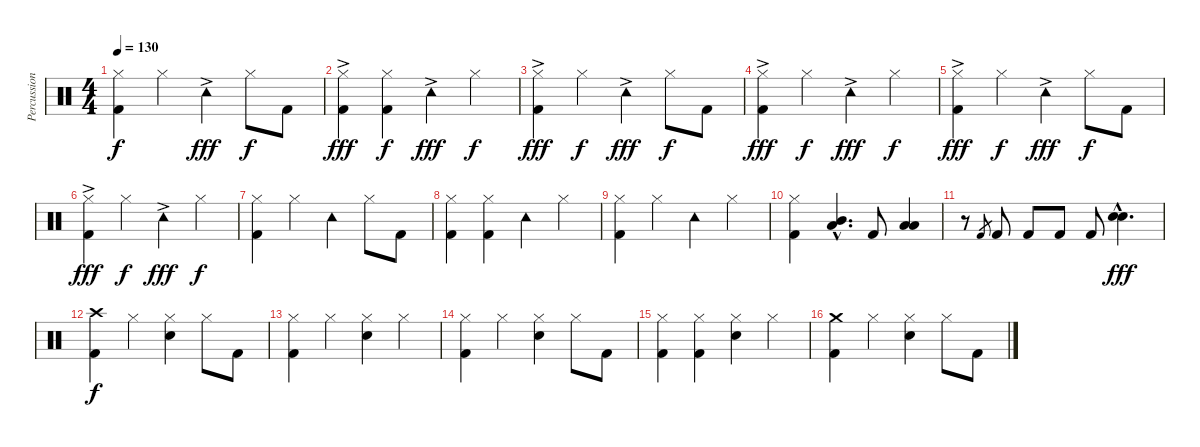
\track ("Percussion" "Percussion") {instrument percussion}
\staff {score}
\articulation defaults
\ts (4 4)
\tempo 130
\clef neutral
\ks c
("Kick (hit) 2" "Hi-Hat (closed)").4{dy f} "Hi-Hat (closed)".4 "Tambourine (hit)"{ac}.4{dy fff} "Hi-Hat (closed)".8{dy f} "Kick (hit) 2".8 |
("Hi-Hat (closed)"{ac} "Kick (hit) 2").4{dy fff} ("Hi-Hat (closed)" "Kick (hit) 2").4{dy f} "Tambourine (hit)"{ac}.4{dy fff} "Hi-Hat (closed)".4{dy f} |
("Hi-Hat (closed)"{ac} "Kick (hit) 2").4{dy fff} "Hi-Hat (closed)".4{dy f} "Tambourine (hit)"{ac}.4{dy fff} "Hi-Hat (closed)".8{dy f} "Kick (hit) 2".8 |
("Hi-Hat (closed)" "Kick (hit) 2"{ac}).4{dy fff} "Hi-Hat (closed)".4{dy f} "Tambourine (hit)"{ac}.4{dy fff} "Hi-Hat (closed)".4{dy f} |
("Kick (hit) 2" "Hi-Hat (closed)"{ac}).4{dy fff} "Hi-Hat (closed)".4{dy f} "Tambourine (hit)"{ac}.4{dy fff} "Hi-Hat (closed)".8{dy f} "Kick (hit) 2".8 |
("Hi-Hat (closed)"{ac} "Kick (hit) 2").4{dy fff} "Hi-Hat (closed)".4{dy f} "Tambourine (hit)"{ac}.4{dy fff} "Hi-Hat (closed)".4{dy f} |
("Kick (hit) 2" "Hi-Hat (closed)").4 "Hi-Hat (closed)".4 "Tambourine (hit)".4 "Hi-Hat (closed)".8 "Kick (hit) 2".8 |
("Kick (hit) 2" "Hi-Hat (closed)").4 ("Kick (hit) 2" "Hi-Hat (closed)").4 "Tambourine (hit)".4 "Hi-Hat (closed)".4 |
("Hi-Hat (closed)" "Kick (hit) 2").4 "Hi-Hat (closed)".4 "Tambourine (hit)".4 "Hi-Hat (closed)".4 |
("Hi-Hat (closed)" "Kick (hit) 2").4 ("Mid Tom (hit)"{hac} "Low Tom (hit)"{hac}).4{d} "Kick (hit) 2".8 ("Low Floor Tom (hit)" "Low Tom (hit)").4 |
r.8 "Kick (hit) 2".8{gr} "Kick (hit) 2".8 "Kick (hit) 2".8 "Kick (hit) 2".8 "Kick (hit) 2".8 ("Snare (hit) 2"{hac} "Snare (hit) 2"{hac}).4{d dy fff} |
("Crash high (hit)" "Kick (hit) 2").4{dy f} "Hi-Hat (closed)".4 ("Hi-Hat (closed)" "Snare (hit) 2").4 "Hi-Hat (closed)".8 "Kick (hit) 2".8 |
("Hi-Hat (closed)" "Kick (hit) 2").4 "Hi-Hat (closed)".4 ("Hi-Hat (closed)" "Snare (hit) 2").4 "Hi-Hat (closed)".4 |
("Hi-Hat (closed)" "Kick (hit) 2").4 "Hi-Hat (closed)".4 ("Hi-Hat (closed)" "Snare (hit) 2").4 "Hi-Hat (closed)".8 "Kick (hit) 2".8 |
("Hi-Hat (closed)" "Kick (hit) 2").4 ("Hi-Hat (closed)" "Kick (hit) 2").4 ("Hi-Hat (closed)" "Snare (hit) 2").4 "Hi-Hat (closed)".4 |
("Kick (hit) 2" "Crash medium (hit)").4 "Hi-Hat (closed)".4 ("Hi-Hat (closed)" "Snare (hit) 2").4 "Hi-Hat (closed)".8 "Kick (hit) 2".8
